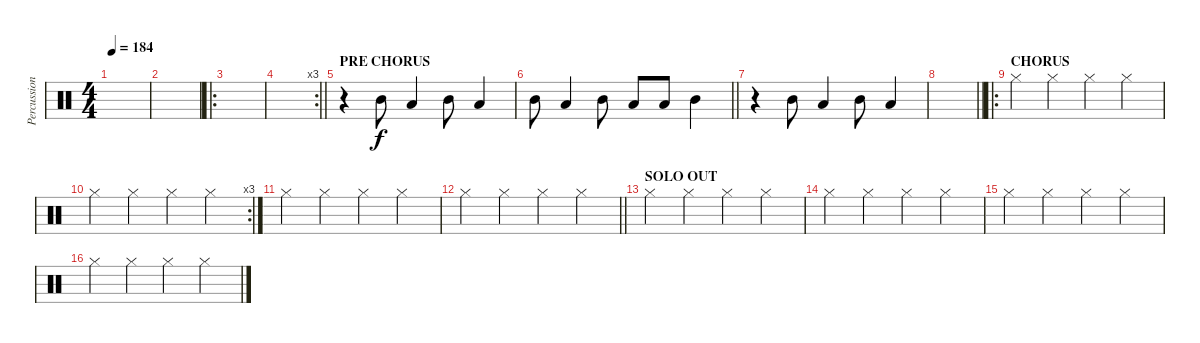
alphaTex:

\track ("Percussions" "Percussion") {instrument percussion}
\staff {score}
\articulation defaults
\ts (4 4)
\tempo 184
\clef neutral
\ks c
|
|
\ro
|
\rc 3
\barLineRight lightlight
|
\section ("" "PRE CHORUS")
r.4 "Mid Tom (hit)".8 "Low Tom (hit)".4 "Mid Tom (hit)".8 "Low Tom (hit)".4 |
\barLineRight lightlight "Mid Tom (hit)".8 "Low Tom (hit)".4 "Mid Tom (hit)".8 "Low Tom (hit)".8 "Low Tom (hit)".8 "Mid Tom (hit)".4
|
r.4 "Mid Tom (hit)".8 "Low Tom (hit)".4 "Mid Tom (hit)".8 "Low Tom (hit)".4 |
\barLineRight lightlight
|
\ro
\section ("" "CHORUS")
"Hi-Hat (closed)".4 "Hi-Hat (closed)".4 "Hi-Hat (closed)".4 "Hi-Hat (closed)".4 |
\rc 3 "Hi-Hat (closed)".4 "Hi-Hat (closed)".4 "Hi-Hat (closed)".4 "Hi-Hat (closed)".4
|
"Hi-Hat (closed)".4 "Hi-Hat (closed)".4 "Hi-Hat (closed)".4 "Hi-Hat (closed)".4 |
\barLineRight lightlight "Hi-Hat (closed)".4 "Hi-Hat (closed)".4 "Hi-Hat (closed)".4 "Hi-Hat (closed)".4
|
\section ("" "SOLO OUT")
"Hi-Hat (closed)".4 "Hi-Hat (closed)".4 "Hi-Hat (closed)".4 "Hi-Hat (closed)".4 |
"Hi-Hat (closed)".4 "Hi-Hat (closed)".4 "Hi-Hat (closed)".4 "Hi-Hat (closed)".4 |
"Hi-Hat (closed)".4 "Hi-Hat (closed)".4 "Hi-Hat (closed)".4 "Hi-Hat (closed)".4 |
"Hi-Hat (closed)".4 "Hi-Hat (closed)".4 "Hi-Hat (closed)".4 "Hi-Hat (closed)".4
